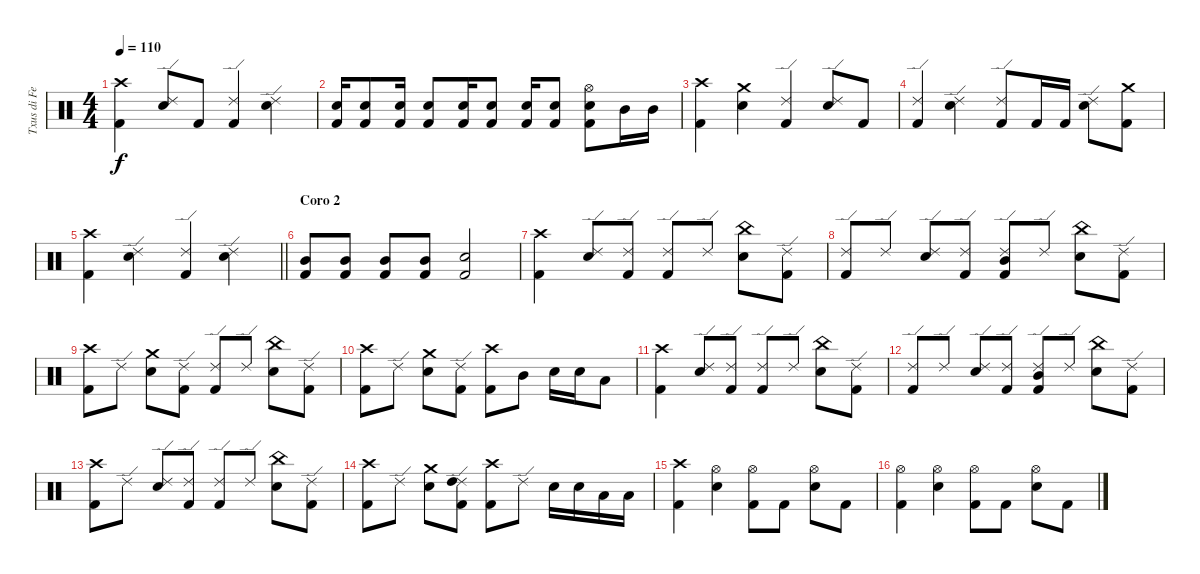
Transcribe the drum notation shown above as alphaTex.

\track ("Txus di Fellatio" "Txus di Fe") {instrument percussion}
\staff {score}
\articulation defaults
\ts (4 4)
\tempo 110
\clef neutral
\ks c
("Kick (hit) 2" "Crash high (hit)").4{dy f} ("Ride (edge) 2" "Electric Snare (hit)").8 "Kick (hit) 2".8 ("Kick (hit) 2" "Ride (edge) 2").4 ("Ride (edge) 2" "Electric Snare (hit)").4 |
("Kick (hit) 2" "Electric Snare (hit)").16 ("Kick (hit) 2" "Electric Snare (hit)").8 ("Kick (hit) 2" "Electric Snare (hit)").16 ("Kick (hit) 2" "Electric Snare (hit)").8 ("Kick (hit) 2" "Electric Snare (hit)").16 ("Kick (hit) 2" "Electric Snare (hit)").8 ("Kick (hit) 2" "Electric Snare (hit)").16 ("Kick (hit) 2" "Electric Snare (hit)").8 ("Kick (hit) 2" "Hi-Hat (open)" "Electric Snare (hit)").8 "Mid Tom (hit)".16 "Mid Tom (hit)".16 |
("Kick (hit) 2" "Crash high (hit)").4 ("Crash medium (hit)" "Electric Snare (hit)").4 ("Kick (hit) 2" "Ride (edge) 2").4 ("Ride (edge) 2" "Electric Snare (hit)").8 "Kick (hit) 2".8 |
("Kick (hit) 2" "Ride (edge) 2").4 ("Ride (edge) 2" "Electric Snare (hit)").4 ("Kick (hit) 2" "Ride (edge) 2").8 "Kick (hit) 2".16 "Kick (hit) 2".16 ("Ride (edge) 2" "Electric Snare (hit)").8 ("Kick (hit) 2" "Crash medium (hit)").8 |
\barLineRight lightlight
("Kick (hit) 2" "Crash high (hit)").4 ("Ride (edge) 2" "Electric Snare (hit)").4 ("Kick (hit) 2" "Ride (edge) 2").4 ("Ride (edge) 2" "Electric Snare (hit)").4 |
\section ("" "Coro 2")
("Kick (hit) 2" "Mid Tom (hit)").8 ("Kick (hit) 2" "Mid Tom (hit)").8 ("Kick (hit) 2" "Mid Tom (hit)").8 ("Kick (hit) 2" "Mid Tom (hit)").8 ("Kick (hit) 2" "Electric Snare (hit)").2 |
("Kick (hit) 2" "Crash high (hit)").4 ("Ride (edge) 2" "Electric Snare (hit)").8 ("Kick (hit) 2" "Ride (edge) 2").8 ("Kick (hit) 2" "Ride (edge) 2").8 "Ride (edge) 2".8 ("China (hit)" "Electric Snare (hit)").8 ("Kick (hit) 2" "Ride (edge) 2").8 |
("Kick (hit) 2" "Ride (edge) 2").8 "Ride (edge) 2".8 ("Ride (edge) 2" "Electric Snare (hit)").8 ("Kick (hit) 2" "Ride (edge) 2").8 ("Kick (hit) 2" "Ride (edge) 2" "Mid Tom (hit)").8 "Ride (edge) 2".8 ("China (hit)" "Electric Snare (hit)").8 ("Kick (hit) 2" "Ride (edge) 2").8 |
("Kick (hit) 2" "Crash high (hit)").8 "Ride (edge) 2".8 ("Crash medium (hit)" "Electric Snare (hit)").8 ("Kick (hit) 2" "Ride (edge) 2").8 ("Kick (hit) 2" "Ride (edge) 2").8 "Ride (edge) 2".8 ("China (hit)" "Electric Snare (hit)").8 ("Kick (hit) 2" "Ride (edge) 2").8 |
("Kick (hit) 2" "Crash high (hit)").8 "Ride (edge) 2".8 ("Crash medium (hit)" "Electric Snare (hit)").8 ("Kick (hit) 2" "Ride (edge) 2").8 ("Kick (hit) 2" "Crash high (hit)").8 "Mid Tom (hit)".8 "Electric Snare (hit)".16 "Electric Snare (hit)".16 "Low Tom (hit)".8 |
("Kick (hit) 2" "Crash high (hit)").4 ("Ride (edge) 2" "Electric Snare (hit)").8 ("Kick (hit) 2" "Ride (edge) 2").8 ("Kick (hit) 2" "Ride (edge) 2").8 "Ride (edge) 2".8 ("China (hit)" "Electric Snare (hit)").8 ("Kick (hit) 2" "Ride (edge) 2").8 |
("Kick (hit) 2" "Ride (edge) 2").8 "Ride (edge) 2".8 ("Ride (edge) 2" "Electric Snare (hit)").8 ("Kick (hit) 2" "Ride (edge) 2").8 ("Kick (hit) 2" "Ride (edge) 2" "Mid Tom (hit)").8 "Ride (edge) 2".8 ("China (hit)" "Electric Snare (hit)").8 ("Kick (hit) 2" "Ride (edge) 2").8 |
("Kick (hit) 2" "Crash high (hit)").8 "Ride (edge) 2".8 ("Ride (edge) 2" "Electric Snare (hit)").8 ("Kick (hit) 2" "Ride (edge) 2").8 ("Kick (hit) 2" "Ride (edge) 2").8 "Ride (edge) 2".8 ("China (hit)" "Electric Snare (hit)").8 ("Kick (hit) 2" "Ride (edge) 2").8 |
("Kick (hit) 2" "Crash high (hit)").8 "Ride (edge) 2".8 ("Crash medium (hit)" "Electric Snare (hit)").8 ("Kick (hit) 2" "Ride (edge) 2" "High Tom (hit)").8 ("Kick (hit) 2" "Crash high (hit)").8 "Ride (edge) 2".8 "Electric Snare (hit)".16 "Electric Snare (hit)".16 "Low Tom (hit)".16 "Low Tom (hit)".16 |
("Kick (hit) 2" "Crash high (hit)").4 ("Hi-Hat (open)" "Electric Snare (hit)").4 ("Kick (hit) 2" "Hi-Hat (open)").8 "Kick (hit) 2".8 ("Hi-Hat (open)" "Electric Snare (hit)").8 "Kick (hit) 2".8 |
("Kick (hit) 2" "Hi-Hat (open)").4 ("Hi-Hat (open)" "Electric Snare (hit)").4 ("Kick (hit) 2" "Hi-Hat (open)").8 "Kick (hit) 2".8 ("Hi-Hat (open)" "Electric Snare (hit)").8 "Kick (hit) 2".8
